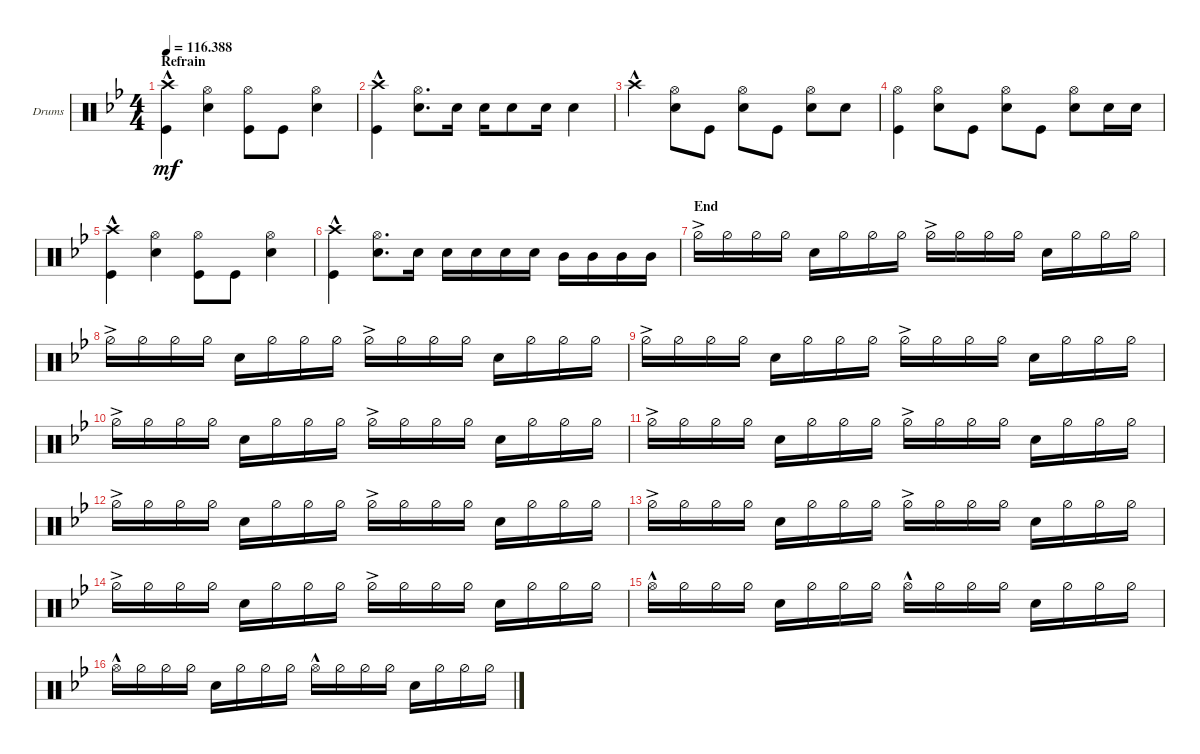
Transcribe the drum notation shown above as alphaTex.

\bracketExtendMode groupsimilarinstruments
\firstSystemTrackNameOrientation horizontal
\otherSystemsTrackNameOrientation horizontal
\track ("Drumkit" "Drums") {instrument percussion}
\staff {score}
\articulation defaults
\ts (4 4)
\section ("" "Refrain")
\tempo
116.388
\accidentals auto
\clef neutral
\ottava regular
\simile none
\ks gminor
("Crash high (hit)"{hac} "Kick (hit)").4{dy mf} ("Hi-Hat (open)" "Snare (hit) 2").4 ("Hi-Hat (open)" "Kick (hit)").8 "Kick (hit)".8 ("Hi-Hat (open)" "Snare (hit) 2").4 |
("Crash high (hit)"{hac} "Kick (hit)").4 ("Hi-Hat (open)" "Snare (hit) 2").8{d} "Snare (hit) 2".16 "Snare (hit) 2".16 "Snare (hit) 2".8 "Snare (hit) 2".16 "Snare (hit) 2".4 |
"Crash high (hit)"{hac}.4 ("Snare (hit) 2" "Hi-Hat (open)").8 "Kick (hit)".8 ("Snare (hit) 2" "Hi-Hat (open)").8 "Kick (hit)".8 ("Snare (hit) 2" "Hi-Hat (open)").8 "Snare (hit) 2".8 |
("Kick (hit)" "Hi-Hat (open)").4 ("Snare (hit) 2" "Hi-Hat (open)").8 "Kick (hit)".8 ("Snare (hit) 2" "Hi-Hat (open)").8 "Kick (hit)".8 ("Snare (hit) 2" "Hi-Hat (open)").8 "Snare (hit) 2".16 "Snare (hit) 2".16 |
("Crash high (hit)"{hac} "Kick (hit)").4 ("Hi-Hat (open)" "Snare (hit) 2").4 ("Hi-Hat (open)" "Kick (hit)").8 "Kick (hit)".8 ("Hi-Hat (open)" "Snare (hit) 2").4 |
("Crash high (hit)"{hac} "Kick (hit)").4 ("Hi-Hat (open)" "Snare (hit) 2").8{d} "Snare (hit) 2".16 "Snare (hit) 2".16 "Snare (hit) 2".16 "Snare (hit) 2".16 "Snare (hit) 2".16 "Mid Tom (hit)".16 "Mid Tom (hit)".16 "Mid Tom (hit)".16 "Mid Tom (hit)".16 |
\section ("" "End")
"Hi-Hat (half)"{ac}.16 "Hi-Hat (half)".16 "Hi-Hat (half)".16 "Hi-Hat (half)".16 "Snare (hit) 2".16 "Hi-Hat (half)".16 "Hi-Hat (half)".16 "Hi-Hat (half)".16 "Hi-Hat (half)"{ac}.16 "Hi-Hat (half)".16 "Hi-Hat (half)".16 "Hi-Hat (half)".16 "Snare (hit) 2".16 "Hi-Hat (half)".16 "Hi-Hat (half)".16 "Hi-Hat (half)".16 |
"Hi-Hat (half)"{ac}.16 "Hi-Hat (half)".16 "Hi-Hat (half)".16 "Hi-Hat (half)".16 "Snare (hit) 2".16 "Hi-Hat (half)".16 "Hi-Hat (half)".16 "Hi-Hat (half)".16 "Hi-Hat (half)"{ac}.16 "Hi-Hat (half)".16 "Hi-Hat (half)".16 "Hi-Hat (half)".16 "Snare (hit) 2".16 "Hi-Hat (half)".16 "Hi-Hat (half)".16 "Hi-Hat (half)".16 |
"Hi-Hat (half)"{ac}.16 "Hi-Hat (half)".16 "Hi-Hat (half)".16 "Hi-Hat (half)".16 "Snare (hit) 2".16 "Hi-Hat (half)".16 "Hi-Hat (half)".16 "Hi-Hat (half)".16 "Hi-Hat (half)"{ac}.16 "Hi-Hat (half)".16 "Hi-Hat (half)".16 "Hi-Hat (half)".16 "Snare (hit) 2".16 "Hi-Hat (half)".16 "Hi-Hat (half)".16 "Hi-Hat (half)".16 |
"Hi-Hat (half)"{ac}.16 "Hi-Hat (half)".16 "Hi-Hat (half)".16 "Hi-Hat (half)".16 "Snare (hit) 2".16 "Hi-Hat (half)".16 "Hi-Hat (half)".16 "Hi-Hat (half)".16 "Hi-Hat (half)"{ac}.16 "Hi-Hat (half)".16 "Hi-Hat (half)".16 "Hi-Hat (half)".16 "Snare (hit) 2".16 "Hi-Hat (half)".16 "Hi-Hat (half)".16 "Hi-Hat (half)".16 |
"Hi-Hat (half)"{ac}.16 "Hi-Hat (half)".16 "Hi-Hat (half)".16 "Hi-Hat (half)".16 "Snare (hit) 2".16 "Hi-Hat (half)".16 "Hi-Hat (half)".16 "Hi-Hat (half)".16 "Hi-Hat (half)"{ac}.16 "Hi-Hat (half)".16 "Hi-Hat (half)".16 "Hi-Hat (half)".16 "Snare (hit) 2".16 "Hi-Hat (half)".16 "Hi-Hat (half)".16 "Hi-Hat (half)".16 |
"Hi-Hat (half)"{ac}.16 "Hi-Hat (half)".16 "Hi-Hat (half)".16 "Hi-Hat (half)".16 "Snare (hit) 2".16 "Hi-Hat (half)".16 "Hi-Hat (half)".16 "Hi-Hat (half)".16 "Hi-Hat (half)"{ac}.16 "Hi-Hat (half)".16 "Hi-Hat (half)".16 "Hi-Hat (half)".16 "Snare (hit) 2".16 "Hi-Hat (half)".16 "Hi-Hat (half)".16 "Hi-Hat (half)".16 |
"Hi-Hat (half)"{ac}.16 "Hi-Hat (half)".16 "Hi-Hat (half)".16 "Hi-Hat (half)".16 "Snare (hit) 2".16 "Hi-Hat (half)".16 "Hi-Hat (half)".16 "Hi-Hat (half)".16 "Hi-Hat (half)"{ac}.16 "Hi-Hat (half)".16 "Hi-Hat (half)".16 "Hi-Hat (half)".16 "Snare (hit) 2".16 "Hi-Hat (half)".16 "Hi-Hat (half)".16 "Hi-Hat (half)".16 |
"Hi-Hat (half)"{ac}.16 "Hi-Hat (half)".16 "Hi-Hat (half)".16 "Hi-Hat (half)".16 "Snare (hit) 2".16 "Hi-Hat (half)".16 "Hi-Hat (half)".16 "Hi-Hat (half)".16 "Hi-Hat (half)"{ac}.16 "Hi-Hat (half)".16 "Hi-Hat (half)".16 "Hi-Hat (half)".16 "Snare (hit) 2".16 "Hi-Hat (half)".16 "Hi-Hat (half)".16 "Hi-Hat (half)".16 |
"Hi-Hat (open)"{hac}.16 "Hi-Hat (half)".16 "Hi-Hat (half)".16 "Hi-Hat (half)".16 "Snare (hit) 2".16 "Hi-Hat (half)".16 "Hi-Hat (half)".16 "Hi-Hat (half)".16 "Hi-Hat (open)"{hac}.16 "Hi-Hat (half)".16 "Hi-Hat (half)".16 "Hi-Hat (half)".16 "Snare (hit) 2".16 "Hi-Hat (half)".16 "Hi-Hat (half)".16 "Hi-Hat (half)".16 |
"Hi-Hat (open)"{hac}.16 "Hi-Hat (half)".16 "Hi-Hat (half)".16 "Hi-Hat (half)".16 "Snare (hit) 2".16 "Hi-Hat (half)".16 "Hi-Hat (half)".16 "Hi-Hat (half)".16 "Hi-Hat (open)"{hac}.16 "Hi-Hat (half)".16 "Hi-Hat (half)".16 "Hi-Hat (half)".16 "Snare (hit) 2".16 "Hi-Hat (half)".16 "Hi-Hat (half)".16 "Hi-Hat (half)".16
